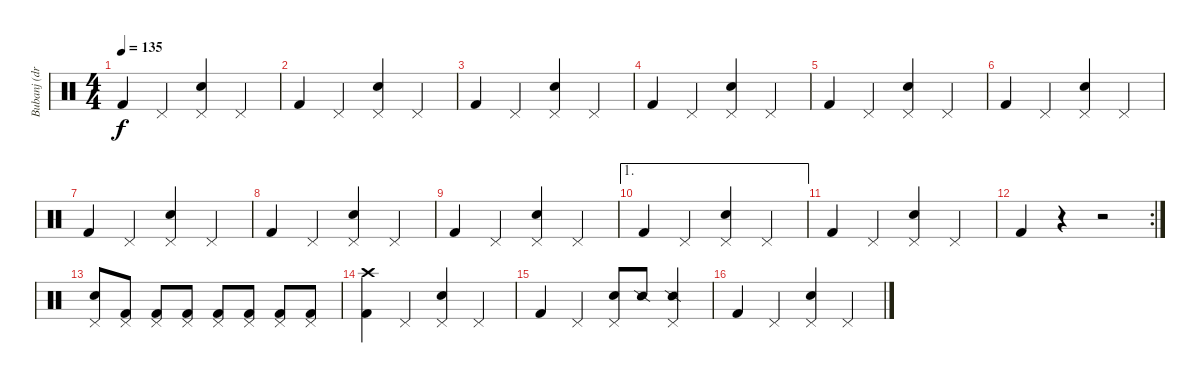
\track ("Bubanj (drums)" "Bubanj (dr") {instrument percussion}
\staff {score}
\articulation defaults
\ts (4 4)
\tempo 135
\clef neutral
\ks c "Kick (hit) 2".4{dy f} "Pedal Hi-Hat (hit)".4
("Pedal Hi-Hat (hit)" "Snare (hit) 2").4 "Pedal Hi-Hat (hit)".4 |
"Kick (hit) 2".4 "Pedal Hi-Hat (hit)".4 ("Pedal Hi-Hat (hit)" "Snare (hit) 2").4 "Pedal Hi-Hat (hit)".4 |
"Kick (hit) 2".4 "Pedal Hi-Hat (hit)".4 ("Pedal Hi-Hat (hit)" "Snare (hit) 2").4 "Pedal Hi-Hat (hit)".4 |
"Kick (hit) 2".4 "Pedal Hi-Hat (hit)".4 ("Pedal Hi-Hat (hit)" "Snare (hit) 2").4 "Pedal Hi-Hat (hit)".4 |
"Kick (hit) 2".4 "Pedal Hi-Hat (hit)".4 ("Pedal Hi-Hat (hit)" "Snare (hit) 2").4 "Pedal Hi-Hat (hit)".4 |
"Kick (hit) 2".4 "Pedal Hi-Hat (hit)".4 ("Pedal Hi-Hat (hit)" "Snare (hit) 2").4 "Pedal Hi-Hat (hit)".4 |
"Kick (hit) 2".4 "Pedal Hi-Hat (hit)".4 ("Pedal Hi-Hat (hit)" "Snare (hit) 2").4 "Pedal Hi-Hat (hit)".4 |
"Kick (hit) 2".4 "Pedal Hi-Hat (hit)".4 ("Pedal Hi-Hat (hit)" "Snare (hit) 2").4 "Pedal Hi-Hat (hit)".4 |
"Kick (hit) 2".4 "Pedal Hi-Hat (hit)".4 ("Pedal Hi-Hat (hit)" "Snare (hit) 2").4 "Pedal Hi-Hat (hit)".4 |
\ae 1 "Kick (hit) 2".4 "Pedal Hi-Hat (hit)".4
("Pedal Hi-Hat (hit)" "Snare (hit) 2").4 "Pedal Hi-Hat (hit)".4 |
"Kick (hit) 2".4 "Pedal Hi-Hat (hit)".4 ("Pedal Hi-Hat (hit)" "Snare (hit) 2").4 "Pedal Hi-Hat (hit)".4 |
\rc 2 "Kick (hit) 2".4
r.4 r.2 |
("Snare (hit) 2" "Pedal Hi-Hat (hit)").8 ("Kick (hit) 2" "Pedal Hi-Hat (hit)").8 ("Kick (hit) 2" "Pedal Hi-Hat (hit)").8 ("Kick (hit) 2" "Pedal Hi-Hat (hit)").8 ("Kick (hit) 2" "Pedal Hi-Hat (hit)").8 ("Kick (hit) 2" "Pedal Hi-Hat (hit)").8 ("Kick (hit) 2" "Pedal Hi-Hat (hit)").8 ("Kick (hit) 2" "Pedal Hi-Hat (hit)").8 |
("Kick (hit) 2" "Crash high (hit)").4 "Pedal Hi-Hat (hit)".4 ("Pedal Hi-Hat (hit)" "Snare (hit) 2").4 "Pedal Hi-Hat (hit)".4 |
"Kick (hit) 2".4 "Pedal Hi-Hat (hit)".4 ("Pedal Hi-Hat (hit)" "Snare (hit) 2").8 "Snare (side stick) 2".8 ("Pedal Hi-Hat (hit)" "Snare (side stick) 2").4 |
"Kick (hit) 2".4 "Pedal Hi-Hat (hit)".4 ("Pedal Hi-Hat (hit)" "Snare (hit) 2").4 "Pedal Hi-Hat (hit)".4
